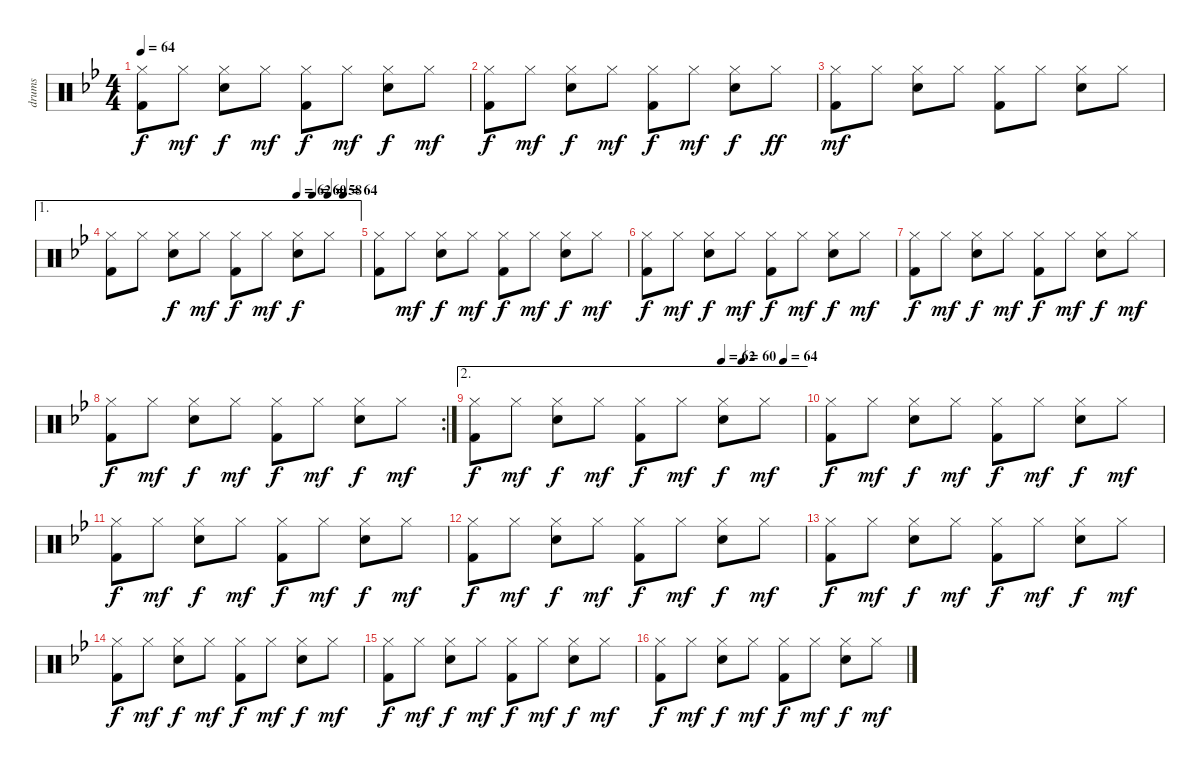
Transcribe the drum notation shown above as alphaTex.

\track ("drums" "drums") {instrument percussion}
\staff {score}
\articulation defaults
\ts (4 4)
\tempo 64
\clef neutral
\ks gminor
("Hi-Hat (closed)" "Kick (hit) 2").8{dy f} "Hi-Hat (closed)".8{dy mf} ("Hi-Hat (closed)" "Snare (hit) 2").8{dy f} "Hi-Hat (closed)".8{dy mf} ("Hi-Hat (closed)" "Kick (hit) 2").8{dy f} "Hi-Hat (closed)".8{dy mf} ("Hi-Hat (closed)" "Snare (hit) 2").8{dy f} "Hi-Hat (closed)".8{dy mf} |
("Hi-Hat (closed)" "Kick (hit) 2").8{dy f} "Hi-Hat (closed)".8{dy mf} ("Hi-Hat (closed)" "Snare (hit) 2").8{dy f} "Hi-Hat (closed)".8{dy mf} ("Hi-Hat (closed)" "Kick (hit) 2").8{dy f} "Hi-Hat (closed)".8{dy mf} ("Hi-Hat (closed)" "Snare (hit) 2").8{dy f} "Hi-Hat (closed)".8{dy ff} |
("Hi-Hat (closed)" "Kick (hit) 2").8{dy mf} "Hi-Hat (closed)".8 ("Hi-Hat (closed)" "Snare (hit) 2").8 "Hi-Hat (closed)".8 ("Hi-Hat (closed)" "Kick (hit) 2").8 "Hi-Hat (closed)".8 ("Hi-Hat (closed)" "Snare (hit) 2").8 "Hi-Hat (closed)".8 |
\ae 1
\tempo (62 0.75)
\tempo (60 0.8125)
\tempo (58 0.875)
\tempo (64 0.9375)
("Hi-Hat (closed)" "Kick (hit) 2").8 "Hi-Hat (closed)".8 ("Hi-Hat (closed)" "Snare (hit) 2").8{dy f} "Hi-Hat (closed)".8{dy mf} ("Hi-Hat (closed)" "Kick (hit) 2").8{dy f} "Hi-Hat (closed)".8{dy mf} ("Hi-Hat (closed)" "Snare (hit) 2").8{dy f} "Hi-Hat (closed)".8 |
("Hi-Hat (closed)" "Kick (hit) 2").8 "Hi-Hat (closed)".8{dy mf} ("Hi-Hat (closed)" "Snare (hit) 2").8{dy f} "Hi-Hat (closed)".8{dy mf} ("Hi-Hat (closed)" "Kick (hit) 2").8{dy f} "Hi-Hat (closed)".8{dy mf} ("Hi-Hat (closed)" "Snare (hit) 2").8{dy f} "Hi-Hat (closed)".8{dy mf} |
("Hi-Hat (closed)" "Kick (hit) 2").8{dy f} "Hi-Hat (closed)".8{dy mf} ("Hi-Hat (closed)" "Snare (hit) 2").8{dy f} "Hi-Hat (closed)".8{dy mf} ("Hi-Hat (closed)" "Kick (hit) 2").8{dy f} "Hi-Hat (closed)".8{dy mf} ("Hi-Hat (closed)" "Snare (hit) 2").8{dy f} "Hi-Hat (closed)".8{dy mf} |
("Hi-Hat (closed)" "Kick (hit) 2").8{dy f} "Hi-Hat (closed)".8{dy mf} ("Hi-Hat (closed)" "Snare (hit) 2").8{dy f} "Hi-Hat (closed)".8{dy mf} ("Hi-Hat (closed)" "Kick (hit) 2").8{dy f} "Hi-Hat (closed)".8{dy mf} ("Hi-Hat (closed)" "Snare (hit) 2").8{dy f} "Hi-Hat (closed)".8{dy mf} |
\rc 2
("Hi-Hat (closed)" "Kick (hit) 2").8{dy f} "Hi-Hat (closed)".8{dy mf} ("Hi-Hat (closed)" "Snare (hit) 2").8{dy f} "Hi-Hat (closed)".8{dy mf} ("Hi-Hat (closed)" "Kick (hit) 2").8{dy f} "Hi-Hat (closed)".8{dy mf} ("Hi-Hat (closed)" "Snare (hit) 2").8{dy f} "Hi-Hat (closed)".8{dy mf} |
\ae 2
\tempo (62 0.75)
\tempo (60 0.8125)
\tempo (64 0.9375)
("Hi-Hat (closed)" "Kick (hit) 2").8{dy f} "Hi-Hat (closed)".8{dy mf} ("Hi-Hat (closed)" "Snare (hit) 2").8{dy f} "Hi-Hat (closed)".8{dy mf} ("Hi-Hat (closed)" "Kick (hit) 2").8{dy f} "Hi-Hat (closed)".8{dy mf} ("Hi-Hat (closed)" "Snare (hit) 2").8{dy f} "Hi-Hat (closed)".8{dy mf} |
("Hi-Hat (closed)" "Kick (hit) 2").8{dy f} "Hi-Hat (closed)".8{dy mf} ("Hi-Hat (closed)" "Snare (hit) 2").8{dy f} "Hi-Hat (closed)".8{dy mf} ("Hi-Hat (closed)" "Kick (hit) 2").8{dy f} "Hi-Hat (closed)".8{dy mf} ("Hi-Hat (closed)" "Snare (hit) 2").8{dy f} "Hi-Hat (closed)".8{dy mf} |
("Hi-Hat (closed)" "Kick (hit) 2").8{dy f} "Hi-Hat (closed)".8{dy mf} ("Hi-Hat (closed)" "Snare (hit) 2").8{dy f} "Hi-Hat (closed)".8{dy mf} ("Hi-Hat (closed)" "Kick (hit) 2").8{dy f} "Hi-Hat (closed)".8{dy mf} ("Hi-Hat (closed)" "Snare (hit) 2").8{dy f} "Hi-Hat (closed)".8{dy mf} |
("Hi-Hat (closed)" "Kick (hit) 2").8{dy f} "Hi-Hat (closed)".8{dy mf} ("Hi-Hat (closed)" "Snare (hit) 2").8{dy f} "Hi-Hat (closed)".8{dy mf} ("Hi-Hat (closed)" "Kick (hit) 2").8{dy f} "Hi-Hat (closed)".8{dy mf} ("Hi-Hat (closed)" "Snare (hit) 2").8{dy f} "Hi-Hat (closed)".8{dy mf} |
("Hi-Hat (closed)" "Kick (hit) 2").8{dy f} "Hi-Hat (closed)".8{dy mf} ("Hi-Hat (closed)" "Snare (hit) 2").8{dy f} "Hi-Hat (closed)".8{dy mf} ("Hi-Hat (closed)" "Kick (hit) 2").8{dy f} "Hi-Hat (closed)".8{dy mf} ("Hi-Hat (closed)" "Snare (hit) 2").8{dy f} "Hi-Hat (closed)".8{dy mf} |
("Hi-Hat (closed)" "Kick (hit) 2").8{dy f} "Hi-Hat (closed)".8{dy mf} ("Hi-Hat (closed)" "Snare (hit) 2").8{dy f} "Hi-Hat (closed)".8{dy mf} ("Hi-Hat (closed)" "Kick (hit) 2").8{dy f} "Hi-Hat (closed)".8{dy mf} ("Hi-Hat (closed)" "Snare (hit) 2").8{dy f} "Hi-Hat (closed)".8{dy mf} |
("Hi-Hat (closed)" "Kick (hit) 2").8{dy f} "Hi-Hat (closed)".8{dy mf} ("Hi-Hat (closed)" "Snare (hit) 2").8{dy f} "Hi-Hat (closed)".8{dy mf} ("Hi-Hat (closed)" "Kick (hit) 2").8{dy f} "Hi-Hat (closed)".8{dy mf} ("Hi-Hat (closed)" "Snare (hit) 2").8{dy f} "Hi-Hat (closed)".8{dy mf} |
("Hi-Hat (closed)" "Kick (hit) 2").8{dy f} "Hi-Hat (closed)".8{dy mf} ("Hi-Hat (closed)" "Snare (hit) 2").8{dy f} "Hi-Hat (closed)".8{dy mf} ("Hi-Hat (closed)" "Kick (hit) 2").8{dy f} "Hi-Hat (closed)".8{dy mf} ("Hi-Hat (closed)" "Snare (hit) 2").8{dy f} "Hi-Hat (closed)".8{dy mf}
